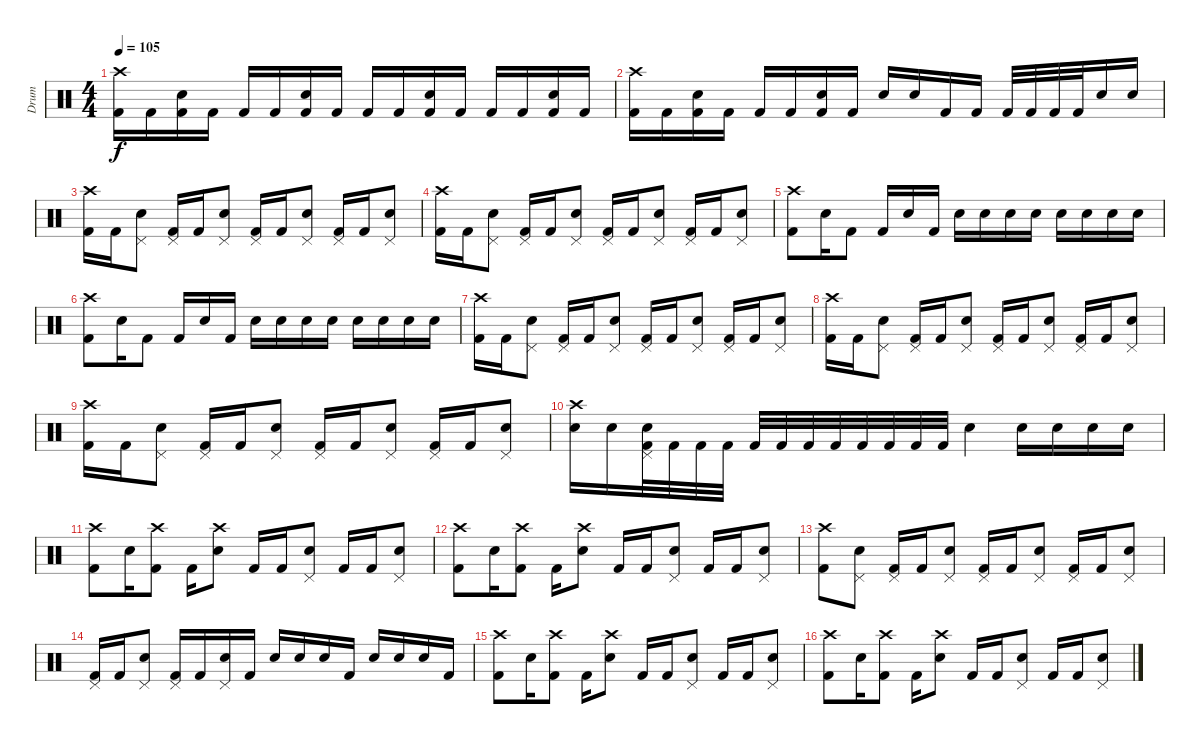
\track ("Drum" "Drum") {instrument percussion}
\staff {score}
\articulation defaults
\ts (4 4)
\tempo 105
\clef neutral
\ks c
("Crash high (hit)" "Kick (hit) 2").16{dy f} "Kick (hit) 2".16 ("Snare (hit) 2" "Kick (hit) 2").16 "Kick (hit) 2".16 "Kick (hit) 2".16 "Kick (hit) 2".16 ("Snare (hit) 2" "Kick (hit) 2").16 "Kick (hit) 2".16 "Kick (hit) 2".16 "Kick (hit) 2".16 ("Snare (hit) 2" "Kick (hit) 2").16 "Kick (hit) 2".16 "Kick (hit) 2".16 "Kick (hit) 2".16 ("Snare (hit) 2" "Kick (hit) 2").16 "Kick (hit) 2".16 |
("Crash high (hit)" "Kick (hit) 2").16 "Kick (hit) 2".16 ("Snare (hit) 2" "Kick (hit) 2").16 "Kick (hit) 2".16 "Kick (hit) 2".16 "Kick (hit) 2".16 ("Snare (hit) 2" "Kick (hit) 2").16 "Kick (hit) 2".16 "Snare (hit) 2".16 "Snare (hit) 2".16 "Kick (hit) 2".16 "Kick (hit) 2".16 "Kick (hit) 2".32 "Kick (hit) 2".32 "Kick (hit) 2".32 "Kick (hit) 2".32 "Snare (hit) 2".16 "Snare (hit) 2".16 |
("Crash high (hit)" "Kick (hit) 2").16 "Kick (hit) 2".16 ("Pedal Hi-Hat (hit)" "Snare (hit) 2").8 ("Pedal Hi-Hat (hit)" "Kick (hit) 2").16 "Kick (hit) 2".16 ("Pedal Hi-Hat (hit)" "Snare (hit) 2").8 ("Pedal Hi-Hat (hit)" "Kick (hit) 2").16 "Kick (hit) 2".16 ("Pedal Hi-Hat (hit)" "Snare (hit) 2").8 ("Pedal Hi-Hat (hit)" "Kick (hit) 2").16 "Kick (hit) 2".16 ("Pedal Hi-Hat (hit)" "Snare (hit) 2").8 |
("Crash high (hit)" "Kick (hit) 2").16 "Kick (hit) 2".16 ("Pedal Hi-Hat (hit)" "Snare (hit) 2").8 ("Pedal Hi-Hat (hit)" "Kick (hit) 2").16 "Kick (hit) 2".16 ("Pedal Hi-Hat (hit)" "Snare (hit) 2").8 ("Pedal Hi-Hat (hit)" "Kick (hit) 2").16 "Kick (hit) 2".16 ("Pedal Hi-Hat (hit)" "Snare (hit) 2").8 ("Pedal Hi-Hat (hit)" "Kick (hit) 2").16 "Kick (hit) 2".16 ("Pedal Hi-Hat (hit)" "Snare (hit) 2").8 |
("Crash high (hit)" "Kick (hit) 2").8 "Snare (hit) 2".16 "Kick (hit) 2".8 "Kick (hit) 2".16 "Electric Snare (hit)".16 "Kick (hit) 2".16 "Snare (hit) 2".16 "Snare (hit) 2".16 "Snare (hit) 2".16 "Snare (hit) 2".16 "Snare (hit) 2".16 "Snare (hit) 2".16 "Snare (hit) 2".16 "Snare (hit) 2".16 |
("Crash high (hit)" "Kick (hit) 2").8 "Snare (hit) 2".16 "Kick (hit) 2".8 "Kick (hit) 2".16 "Electric Snare (hit)".16 "Kick (hit) 2".16 "Snare (hit) 2".16 "Snare (hit) 2".16 "Snare (hit) 2".16 "Snare (hit) 2".16 "Snare (hit) 2".16 "Snare (hit) 2".16 "Snare (hit) 2".16 "Snare (hit) 2".16 |
("Crash high (hit)" "Kick (hit) 2").16 "Kick (hit) 2".16 ("Pedal Hi-Hat (hit)" "Snare (hit) 2").8 ("Pedal Hi-Hat (hit)" "Kick (hit) 2").16 "Kick (hit) 2".16 ("Pedal Hi-Hat (hit)" "Snare (hit) 2").8 ("Pedal Hi-Hat (hit)" "Kick (hit) 2").16 "Kick (hit) 2".16 ("Pedal Hi-Hat (hit)" "Snare (hit) 2").8 ("Pedal Hi-Hat (hit)" "Kick (hit) 2").16 "Kick (hit) 2".16 ("Pedal Hi-Hat (hit)" "Snare (hit) 2").8 |
("Crash high (hit)" "Kick (hit) 2").16 "Kick (hit) 2".16 ("Pedal Hi-Hat (hit)" "Snare (hit) 2").8 ("Pedal Hi-Hat (hit)" "Kick (hit) 2").16 "Kick (hit) 2".16 ("Pedal Hi-Hat (hit)" "Snare (hit) 2").8 ("Pedal Hi-Hat (hit)" "Kick (hit) 2").16 "Kick (hit) 2".16 ("Pedal Hi-Hat (hit)" "Snare (hit) 2").8 ("Pedal Hi-Hat (hit)" "Kick (hit) 2").16 "Kick (hit) 2".16 ("Pedal Hi-Hat (hit)" "Snare (hit) 2").8 |
("Crash high (hit)" "Kick (hit) 2").16 "Kick (hit) 2".16 ("Pedal Hi-Hat (hit)" "Snare (hit) 2").8 ("Pedal Hi-Hat (hit)" "Kick (hit) 2").16 "Kick (hit) 2".16 ("Pedal Hi-Hat (hit)" "Snare (hit) 2").8 ("Pedal Hi-Hat (hit)" "Kick (hit) 2").16 "Kick (hit) 2".16 ("Pedal Hi-Hat (hit)" "Snare (hit) 2").8 ("Pedal Hi-Hat (hit)" "Kick (hit) 2").16 "Kick (hit) 2".16 ("Pedal Hi-Hat (hit)" "Snare (hit) 2").8 |
("Crash high (hit)" "Snare (hit) 2").16 "Snare (hit) 2".16 ("Pedal Hi-Hat (hit)" "Snare (hit) 2" "Kick (hit) 2").32 "Kick (hit) 2".32 "Kick (hit) 2".32 "Kick (hit) 2".32 "Kick (hit) 2".32 "Kick (hit) 2".32 "Kick (hit) 2".32 "Kick (hit) 2".32 "Kick (hit) 2".32 "Kick (hit) 2".32 "Kick (hit) 2".32 "Kick (hit) 2".32 "Snare (hit) 2".4 "Snare (hit) 2".16 "Snare (hit) 2".16 "Snare (hit) 2".16 "Snare (hit) 2".16 |
("Crash high (hit)" "Kick (hit) 2").8 "Snare (hit) 2".16 ("Crash high (hit)" "Kick (hit) 2").8 "Kick (hit) 2".16 ("Crash high (hit)" "Snare (hit) 2").8 "Kick (hit) 2".16 "Kick (hit) 2".16 ("Pedal Hi-Hat (hit)" "Snare (hit) 2").8 "Kick (hit) 2".16 "Kick (hit) 2".16 ("Pedal Hi-Hat (hit)" "Snare (hit) 2").8 |
("Crash high (hit)" "Kick (hit) 2").8 "Snare (hit) 2".16 ("Crash high (hit)" "Kick (hit) 2").8 "Kick (hit) 2".16 ("Crash high (hit)" "Snare (hit) 2").8 "Kick (hit) 2".16 "Kick (hit) 2".16 ("Pedal Hi-Hat (hit)" "Snare (hit) 2").8 "Kick (hit) 2".16 "Kick (hit) 2".16 ("Pedal Hi-Hat (hit)" "Snare (hit) 2").8 |
("Crash high (hit)" "Kick (hit) 2").8 ("Pedal Hi-Hat (hit)" "Snare (hit) 2").8 ("Pedal Hi-Hat (hit)" "Kick (hit) 2").16 "Kick (hit) 2".16 ("Pedal Hi-Hat (hit)" "Snare (hit) 2").8 ("Pedal Hi-Hat (hit)" "Kick (hit) 2").16 "Kick (hit) 2".16 ("Pedal Hi-Hat (hit)" "Snare (hit) 2").8 ("Pedal Hi-Hat (hit)" "Kick (hit) 2").16 "Kick (hit) 2".16 ("Pedal Hi-Hat (hit)" "Snare (hit) 2").8 |
("Pedal Hi-Hat (hit)" "Kick (hit) 2").16 "Kick (hit) 2".16 ("Pedal Hi-Hat (hit)" "Snare (hit) 2").8 ("Pedal Hi-Hat (hit)" "Kick (hit) 2").16 "Kick (hit) 2".16 ("Pedal Hi-Hat (hit)" "Snare (hit) 2").16 "Kick (hit) 2".16 "Snare (hit) 2".16 "Snare (hit) 2".16 "Snare (hit) 2".16 "Kick (hit) 2".16 "Snare (hit) 2".16 "Snare (hit) 2".16 "Snare (hit) 2".16 "Kick (hit) 2".16 |
("Crash high (hit)" "Kick (hit) 2").8 "Snare (hit) 2".16 ("Crash high (hit)" "Kick (hit) 2").8 "Kick (hit) 2".16 ("Crash high (hit)" "Snare (hit) 2").8 "Kick (hit) 2".16 "Kick (hit) 2".16 ("Pedal Hi-Hat (hit)" "Snare (hit) 2").8 "Kick (hit) 2".16 "Kick (hit) 2".16 ("Pedal Hi-Hat (hit)" "Snare (hit) 2").8 |
("Crash high (hit)" "Kick (hit) 2").8 "Snare (hit) 2".16 ("Crash high (hit)" "Kick (hit) 2").8 "Kick (hit) 2".16 ("Crash high (hit)" "Snare (hit) 2").8 "Kick (hit) 2".16 "Kick (hit) 2".16 ("Pedal Hi-Hat (hit)" "Snare (hit) 2").8 "Kick (hit) 2".16 "Kick (hit) 2".16 ("Pedal Hi-Hat (hit)" "Snare (hit) 2").8
